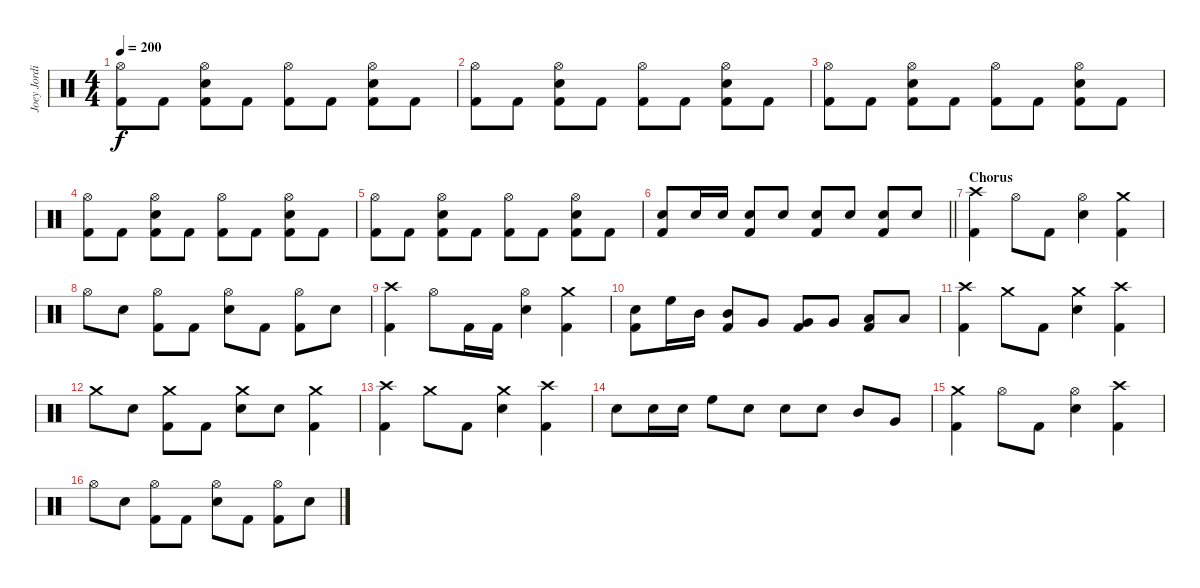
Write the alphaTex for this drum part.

\track ("Joey Jordison" "Joey Jordi") {instrument percussion}
\staff {score}
\articulation defaults
\ts (4 4)
\tempo 200
\clef neutral
\ks c
("Hi-Hat (open)" "Kick (hit) 2").8{dy f} "Kick (hit) 2".8 ("Hi-Hat (open)" "Electric Snare (hit)" "Kick (hit) 2").8 "Kick (hit) 2".8 ("Hi-Hat (open)" "Kick (hit) 2").8 "Kick (hit) 2".8 ("Hi-Hat (open)" "Electric Snare (hit)" "Kick (hit) 2").8 "Kick (hit) 2".8 |
("Hi-Hat (open)" "Kick (hit) 2").8 "Kick (hit) 2".8 ("Hi-Hat (open)" "Electric Snare (hit)" "Kick (hit) 2").8 "Kick (hit) 2".8 ("Hi-Hat (open)" "Kick (hit) 2").8 "Kick (hit) 2".8 ("Hi-Hat (open)" "Electric Snare (hit)" "Kick (hit) 2").8 "Kick (hit) 2".8 |
("Hi-Hat (open)" "Kick (hit) 2").8 "Kick (hit) 2".8 ("Hi-Hat (open)" "Electric Snare (hit)" "Kick (hit) 2").8 "Kick (hit) 2".8 ("Hi-Hat (open)" "Kick (hit) 2").8 "Kick (hit) 2".8 ("Hi-Hat (open)" "Electric Snare (hit)" "Kick (hit) 2").8 "Kick (hit) 2".8 |
("Hi-Hat (open)" "Kick (hit) 2").8 "Kick (hit) 2".8 ("Hi-Hat (open)" "Electric Snare (hit)" "Kick (hit) 2").8 "Kick (hit) 2".8 ("Hi-Hat (open)" "Kick (hit) 2").8 "Kick (hit) 2".8 ("Hi-Hat (open)" "Electric Snare (hit)" "Kick (hit) 2").8 "Kick (hit) 2".8 |
("Hi-Hat (open)" "Kick (hit) 2").8 "Kick (hit) 2".8 ("Hi-Hat (open)" "Electric Snare (hit)" "Kick (hit) 2").8 "Kick (hit) 2".8 ("Hi-Hat (open)" "Kick (hit) 2").8 "Kick (hit) 2".8 ("Hi-Hat (open)" "Electric Snare (hit)" "Kick (hit) 2").8 "Kick (hit) 2".8 |
\barLineRight lightlight
("Electric Snare (hit)" "Kick (hit) 2").8 "Electric Snare (hit)".16 "Electric Snare (hit)".16 ("Electric Snare (hit)" "Kick (hit) 2").8 "Electric Snare (hit)".8 ("Electric Snare (hit)" "Kick (hit) 2").8 "Electric Snare (hit)".8 ("Electric Snare (hit)" "Kick (hit) 2").8 "Electric Snare (hit)".8 |
\section ("" "Chorus")
("Crash high (hit)" "Kick (hit) 2").4 "Hi-Hat (open)".8 "Kick (hit) 2".8 ("Hi-Hat (open)" "Electric Snare (hit)").4 ("Crash medium (hit)" "Kick (hit) 2").4 |
"Hi-Hat (open)".8 "Electric Snare (hit)".8 ("Hi-Hat (open)" "Kick (hit) 2").8 "Kick (hit) 2".8 ("Hi-Hat (open)" "Electric Snare (hit)").8 "Kick (hit) 2".8 ("Hi-Hat (open)" "Kick (hit) 2").8 "Electric Snare (hit)".8 |
("Crash high (hit)" "Kick (hit) 2").4 "Hi-Hat (open)".8 "Kick (hit) 2".16 "Kick (hit) 2".16 ("Hi-Hat (open)" "Electric Snare (hit)").4 ("Crash medium (hit)" "Kick (hit) 2").4 |
("Electric Snare (hit)" "Kick (hit) 2").8 "High Floor Tom (hit)".16 "Mid Tom (hit)".16 ("Mid Tom (hit)" "Kick (hit) 2").8 "Very Low Tom (hit)".8 ("Very Low Tom (hit)" "Kick (hit) 2").8 "Very Low Tom (hit)".8 ("Low Floor Tom (hit)" "Kick (hit) 2").8 "Low Floor Tom (hit)".8 |
("Crash high (hit)" "Kick (hit) 2").4 "Crash medium (hit)".8 "Kick (hit) 2".8 ("Crash medium (hit)" "Electric Snare (hit)").4 ("Crash high (hit)" "Kick (hit) 2").4 |
"Crash medium (hit)".8 "Electric Snare (hit)".8 ("Crash medium (hit)" "Kick (hit) 2").8 "Kick (hit) 2".8 ("Crash medium (hit)" "Electric Snare (hit)").8 "Electric Snare (hit)".8 ("Crash medium (hit)" "Kick (hit) 2").4 |
("Crash high (hit)" "Kick (hit) 2").4 "Crash medium (hit)".8 "Kick (hit) 2".8 ("Crash medium (hit)" "Electric Snare (hit)").4 ("Crash high (hit)" "Kick (hit) 2").4 |
"Electric Snare (hit)".8 "Electric Snare (hit)".16 "Electric Snare (hit)".16 "High Floor Tom (hit)".8 "Electric Snare (hit)".8 "Electric Snare (hit)".8 "Electric Snare (hit)".8 "Mid Tom (hit)".8 "Very Low Tom (hit)".8 |
("Crash medium (hit)" "Kick (hit) 2").4 "Hi-Hat (open)".8 "Kick (hit) 2".8 ("Hi-Hat (open)" "Electric Snare (hit)").4 ("Crash high (hit)" "Kick (hit) 2").4 |
"Hi-Hat (open)".8 "Electric Snare (hit)".8 ("Hi-Hat (open)" "Kick (hit) 2").8 "Kick (hit) 2".8 ("Hi-Hat (open)" "Electric Snare (hit)").8 "Kick (hit) 2".8 ("Hi-Hat (open)" "Kick (hit) 2").8 "Electric Snare (hit)".8
